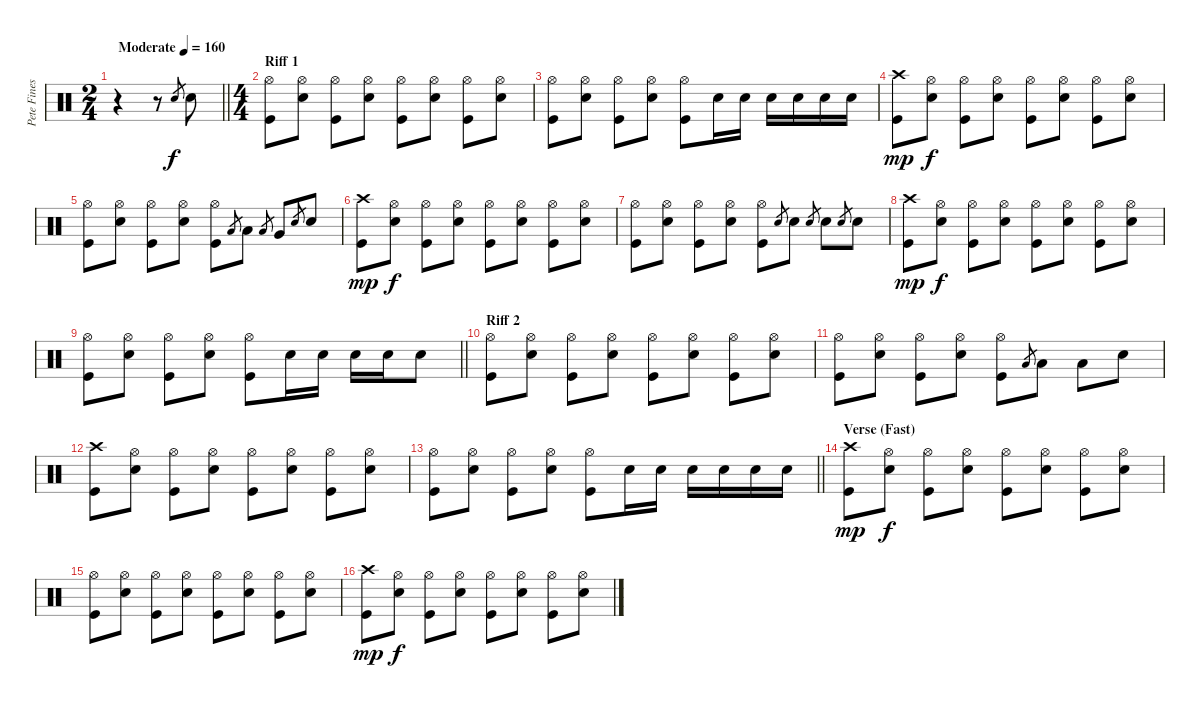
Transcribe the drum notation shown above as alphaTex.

\track ("Pete Finestone (Drums)" "Pete Fines") {instrument percussion}
\staff {score}
\articulation defaults
\ts (2 4)
\tempo (160 "Moderate")
\clef neutral
\barLineRight lightlight
\ks c
r.4{dy f} r.8 "Snare (hit) 2".8{gr} "Snare (hit) 2".8 |
\ts (4 4)
\section ("" "Riff 1")
("Hi-Hat (open)" "Kick (hit)").8 ("Hi-Hat (open)" "Snare (hit) 2").8 ("Hi-Hat (open)" "Kick (hit)").8 ("Hi-Hat (open)" "Snare (hit) 2").8 ("Hi-Hat (open)" "Kick (hit)").8 ("Hi-Hat (open)" "Snare (hit) 2").8 ("Hi-Hat (open)" "Kick (hit)").8 ("Hi-Hat (open)" "Snare (hit) 2").8 |
("Hi-Hat (open)" "Kick (hit)").8 ("Hi-Hat (open)" "Snare (hit) 2").8 ("Hi-Hat (open)" "Kick (hit)").8 ("Hi-Hat (open)" "Snare (hit) 2").8 ("Hi-Hat (open)" "Kick (hit)").8 "Snare (hit) 2".16 "Snare (hit) 2".16 "Snare (hit) 2".16 "Snare (hit) 2".16 "Snare (hit) 2".16 "Snare (hit) 2".16 |
("Crash high (hit)" "Kick (hit)").8{dy mp} ("Hi-Hat (open)" "Snare (hit) 2").8{dy f} ("Hi-Hat (open)" "Kick (hit)").8 ("Hi-Hat (open)" "Snare (hit) 2").8 ("Hi-Hat (open)" "Kick (hit)").8 ("Hi-Hat (open)" "Snare (hit) 2").8 ("Hi-Hat (open)" "Kick (hit)").8 ("Hi-Hat (open)" "Snare (hit) 2").8 |
("Hi-Hat (open)" "Kick (hit)").8 ("Hi-Hat (open)" "Snare (hit) 2").8 ("Hi-Hat (open)" "Kick (hit)").8 ("Hi-Hat (open)" "Snare (hit) 2").8 ("Hi-Hat (open)" "Kick (hit)").8 "Low Tom (hit)".8{gr} "Low Tom (hit)".8 "Low Tom (hit)".8{gr} "Very Low Tom (hit)".8 "Snare (hit) 2".8{gr} "Snare (hit) 2".8 |
("Crash high (hit)" "Kick (hit)").8{dy mp} ("Hi-Hat (open)" "Snare (hit) 2").8{dy f} ("Hi-Hat (open)" "Kick (hit)").8 ("Hi-Hat (open)" "Snare (hit) 2").8 ("Hi-Hat (open)" "Kick (hit)").8 ("Hi-Hat (open)" "Snare (hit) 2").8 ("Hi-Hat (open)" "Kick (hit)").8 ("Hi-Hat (open)" "Snare (hit) 2").8 |
("Hi-Hat (open)" "Kick (hit)").8 ("Hi-Hat (open)" "Snare (hit) 2").8 ("Hi-Hat (open)" "Kick (hit)").8 ("Hi-Hat (open)" "Snare (hit) 2").8 ("Hi-Hat (open)" "Kick (hit)").8 "Snare (hit) 2".8{gr} "Snare (hit) 2".8 "Snare (hit) 2".8{gr} "Snare (hit) 2".8 "Snare (hit) 2".8{gr} "Snare (hit) 2".8 |
("Crash high (hit)" "Kick (hit)").8{dy mp} ("Hi-Hat (open)" "Snare (hit) 2").8{dy f} ("Hi-Hat (open)" "Kick (hit)").8 ("Hi-Hat (open)" "Snare (hit) 2").8 ("Hi-Hat (open)" "Kick (hit)").8 ("Hi-Hat (open)" "Snare (hit) 2").8 ("Hi-Hat (open)" "Kick (hit)").8 ("Hi-Hat (open)" "Snare (hit) 2").8 |
\barLineRight lightlight
("Hi-Hat (open)" "Kick (hit)").8 ("Hi-Hat (open)" "Snare (hit) 2").8 ("Hi-Hat (open)" "Kick (hit)").8 ("Hi-Hat (open)" "Snare (hit) 2").8 ("Hi-Hat (open)" "Kick (hit)").8 "Snare (hit) 2".16 "Snare (hit) 2".16 "Snare (hit) 2".16 "Snare (hit) 2".16 "Snare (hit) 2".8 |
\section ("" "Riff 2")
("Hi-Hat (open)" "Kick (hit)").8 ("Hi-Hat (open)" "Snare (hit) 2").8 ("Hi-Hat (open)" "Kick (hit)").8 ("Hi-Hat (open)" "Snare (hit) 2").8 ("Hi-Hat (open)" "Kick (hit)").8 ("Hi-Hat (open)" "Snare (hit) 2").8 ("Hi-Hat (open)" "Kick (hit)").8 ("Hi-Hat (open)" "Snare (hit) 2").8 |
("Hi-Hat (open)" "Kick (hit)").8 ("Hi-Hat (open)" "Snare (hit) 2").8 ("Hi-Hat (open)" "Kick (hit)").8 ("Hi-Hat (open)" "Snare (hit) 2").8 ("Hi-Hat (open)" "Kick (hit)").8 "Low Tom (hit)".8{gr} "Low Tom (hit)".8 "Low Tom (hit)".8 "Snare (hit) 2".8 |
("Crash high (hit)" "Kick (hit)").8 ("Hi-Hat (open)" "Snare (hit) 2").8 ("Hi-Hat (open)" "Kick (hit)").8 ("Hi-Hat (open)" "Snare (hit) 2").8 ("Hi-Hat (open)" "Kick (hit)").8 ("Hi-Hat (open)" "Snare (hit) 2").8 ("Hi-Hat (open)" "Kick (hit)").8 ("Hi-Hat (open)" "Snare (hit) 2").8 |
\barLineRight lightlight
("Hi-Hat (open)" "Kick (hit)").8 ("Hi-Hat (open)" "Snare (hit) 2").8 ("Hi-Hat (open)" "Kick (hit)").8 ("Hi-Hat (open)" "Snare (hit) 2").8 ("Hi-Hat (open)" "Kick (hit)").8 "Snare (hit) 2".16 "Snare (hit) 2".16 "Snare (hit) 2".16 "Snare (hit) 2".16 "Snare (hit) 2".16 "Snare (hit) 2".16 |
\section ("" "Verse (Fast)")
("Crash high (hit)" "Kick (hit)").8{dy mp} ("Hi-Hat (open)" "Snare (hit) 2").8{dy f} ("Hi-Hat (open)" "Kick (hit)").8 ("Hi-Hat (open)" "Snare (hit) 2").8 ("Hi-Hat (open)" "Kick (hit)").8 ("Hi-Hat (open)" "Snare (hit) 2").8 ("Hi-Hat (open)" "Kick (hit)").8 ("Hi-Hat (open)" "Snare (hit) 2").8 |
("Hi-Hat (open)" "Kick (hit)").8 ("Hi-Hat (open)" "Snare (hit) 2").8 ("Hi-Hat (open)" "Kick (hit)").8 ("Hi-Hat (open)" "Snare (hit) 2").8 ("Hi-Hat (open)" "Kick (hit)").8 ("Hi-Hat (open)" "Snare (hit) 2").8 ("Hi-Hat (open)" "Kick (hit)").8 ("Hi-Hat (open)" "Snare (hit) 2").8 |
("Crash high (hit)" "Kick (hit)").8{dy mp} ("Hi-Hat (open)" "Snare (hit) 2").8{dy f} ("Hi-Hat (open)" "Kick (hit)").8 ("Hi-Hat (open)" "Snare (hit) 2").8 ("Hi-Hat (open)" "Kick (hit)").8 ("Hi-Hat (open)" "Snare (hit) 2").8 ("Hi-Hat (open)" "Kick (hit)").8 ("Hi-Hat (open)" "Snare (hit) 2").8
